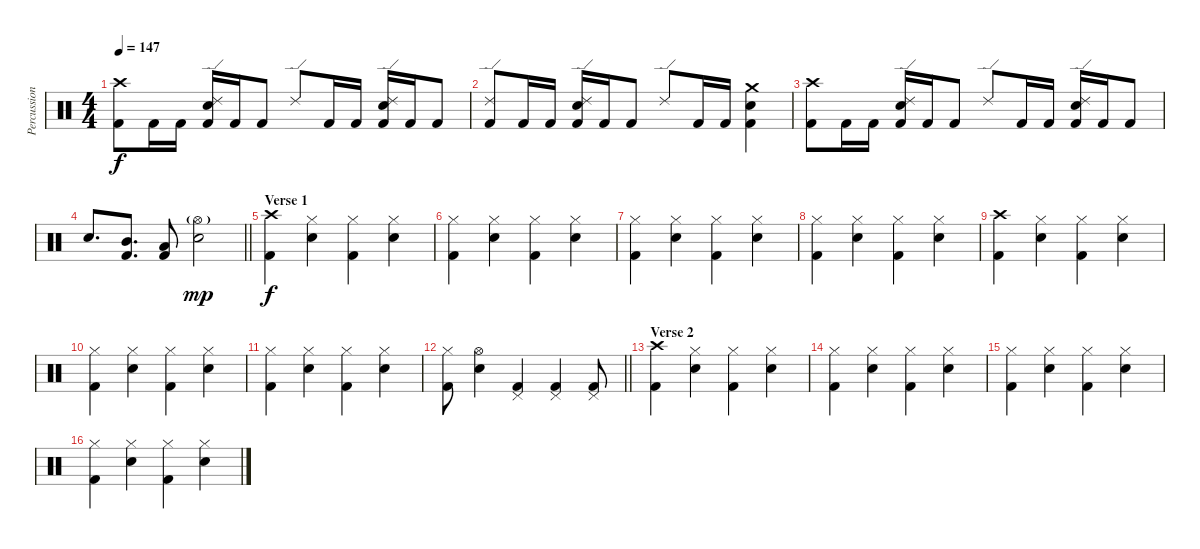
\track ("Percussion" "Percussion") {instrument percussion}
\staff {score}
\articulation defaults
\ts (4 4)
\tempo 147
\clef neutral
\ks c
("Kick (hit) 2" "Crash high (hit)").8{dy f} "Kick (hit) 2".16 "Kick (hit) 2".16 ("Snare (hit) 2" "Kick (hit) 2" "Ride (edge) 2").16 "Kick (hit) 2".16 "Kick (hit) 2".8 "Ride (edge) 2".8 "Kick (hit) 2".16 "Kick (hit) 2".16 ("Snare (hit) 2" "Kick (hit) 2" "Ride (edge) 2").16 "Kick (hit) 2".16 "Kick (hit) 2".8 |
("Kick (hit) 2" "Ride (edge) 2").8 "Kick (hit) 2".16 "Kick (hit) 2".16 ("Snare (hit) 2" "Kick (hit) 2" "Ride (edge) 2").16 "Kick (hit) 2".16 "Kick (hit) 2".8 "Ride (edge) 2".8 "Kick (hit) 2".16 "Kick (hit) 2".16 ("Snare (hit) 2" "Kick (hit) 2" "Crash medium (hit)").4 |
("Kick (hit) 2" "Crash high (hit)").8 "Kick (hit) 2".16 "Kick (hit) 2".16 ("Snare (hit) 2" "Kick (hit) 2" "Ride (edge) 2").16 "Kick (hit) 2".16 "Kick (hit) 2".8 "Ride (edge) 2".8 "Kick (hit) 2".16 "Kick (hit) 2".16 ("Snare (hit) 2" "Kick (hit) 2" "Ride (edge) 2").16 "Kick (hit) 2".16 "Kick (hit) 2".8 |
\barLineRight lightlight "Snare (hit) 2".8{d}
("Mid Tom (hit)" "Kick (hit) 2").8{d} ("Low Tom (hit)" "Kick (hit) 2").8 ("Hi-Hat (open)"{g} "Snare (hit) 2").2{dy mp} |
\section ("" "Verse 1")
("Crash high (hit)" "Kick (hit) 2").4{dy f} ("Hi-Hat (closed)" "Snare (hit) 2").4 ("Hi-Hat (closed)" "Kick (hit) 2").4 ("Hi-Hat (closed)" "Snare (hit) 2").4 |
("Hi-Hat (closed)" "Kick (hit) 2").4 ("Hi-Hat (closed)" "Snare (hit) 2").4 ("Hi-Hat (closed)" "Kick (hit) 2").4 ("Hi-Hat (closed)" "Snare (hit) 2").4 |
("Hi-Hat (closed)" "Kick (hit) 2").4 ("Hi-Hat (closed)" "Snare (hit) 2").4 ("Hi-Hat (closed)" "Kick (hit) 2").4 ("Hi-Hat (closed)" "Snare (hit) 2").4 |
("Hi-Hat (closed)" "Kick (hit) 2").4 ("Hi-Hat (closed)" "Snare (hit) 2").4 ("Hi-Hat (closed)" "Kick (hit) 2").4 ("Hi-Hat (closed)" "Snare (hit) 2").4 |
("Crash high (hit)" "Kick (hit) 2").4 ("Hi-Hat (closed)" "Snare (hit) 2").4 ("Hi-Hat (closed)" "Kick (hit) 2").4 ("Hi-Hat (closed)" "Snare (hit) 2").4 |
("Hi-Hat (closed)" "Kick (hit) 2").4 ("Hi-Hat (closed)" "Snare (hit) 2").4 ("Hi-Hat (closed)" "Kick (hit) 2").4 ("Hi-Hat (closed)" "Snare (hit) 2").4 |
("Hi-Hat (closed)" "Kick (hit) 2").4 ("Hi-Hat (closed)" "Snare (hit) 2").4 ("Hi-Hat (closed)" "Kick (hit) 2").4 ("Hi-Hat (closed)" "Snare (hit) 2").4 |
\barLineRight lightlight
("Kick (hit) 2" "Hi-Hat (closed)").8 ("Snare (hit) 2" "Hi-Hat (open)").4 ("Kick (hit) 2" "Pedal Hi-Hat (hit)").4 ("Kick (hit) 2" "Pedal Hi-Hat (hit)").4 ("Kick (hit) 2" "Pedal Hi-Hat (hit)").8 |
\section ("" "Verse 2")
("Crash high (hit)" "Kick (hit) 2").4 ("Hi-Hat (closed)" "Snare (hit) 2").4 ("Hi-Hat (closed)" "Kick (hit) 2").4 ("Hi-Hat (closed)" "Snare (hit) 2").4 |
("Hi-Hat (closed)" "Kick (hit) 2").4 ("Hi-Hat (closed)" "Snare (hit) 2").4 ("Hi-Hat (closed)" "Kick (hit) 2").4 ("Hi-Hat (closed)" "Snare (hit) 2").4 |
("Hi-Hat (closed)" "Kick (hit) 2").4 ("Hi-Hat (closed)" "Snare (hit) 2").4 ("Hi-Hat (closed)" "Kick (hit) 2").4 ("Hi-Hat (closed)" "Snare (hit) 2").4 |
("Hi-Hat (closed)" "Kick (hit) 2").4 ("Hi-Hat (closed)" "Snare (hit) 2").4 ("Hi-Hat (closed)" "Kick (hit) 2").4 ("Hi-Hat (closed)" "Snare (hit) 2").4
